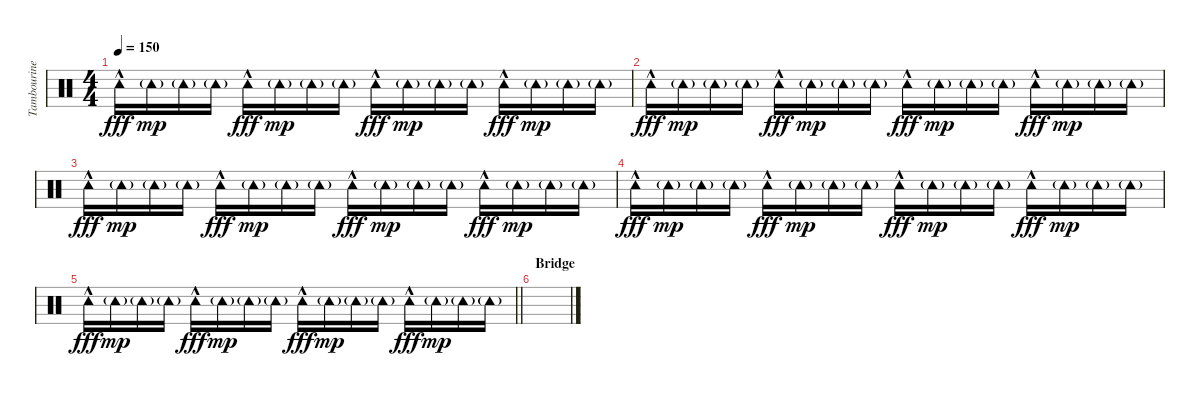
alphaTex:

\track ("Tambourine" "Tambourine") {instrument percussion}
\staff {score}
\articulation defaults
\ts (4 4)
\tempo 150
\clef neutral
\ks c "Tambourine (hit)"{hac}.16{dy fff} "Tambourine (hit)"{g}.16{dy mp} "Tambourine (hit)"{g}.16 "Tambourine (hit)"{g}.16 "Tambourine (hit)"{hac}.16{dy fff} "Tambourine (hit)"{g}.16{dy mp} "Tambourine (hit)"{g}.16 "Tambourine (hit)"{g}.16 "Tambourine (hit)"{hac}.16{dy fff} "Tambourine (hit)"{g}.16{dy mp} "Tambourine (hit)"{g}.16 "Tambourine (hit)"{g}.16 "Tambourine (hit)"{hac}.16{dy fff} "Tambourine (hit)"{g}.16{dy mp} "Tambourine (hit)"{g}.16 "Tambourine (hit)"{g}.16
|
"Tambourine (hit)"{hac}.16{dy fff} "Tambourine (hit)"{g}.16{dy mp} "Tambourine (hit)"{g}.16 "Tambourine (hit)"{g}.16 "Tambourine (hit)"{hac}.16{dy fff} "Tambourine (hit)"{g}.16{dy mp} "Tambourine (hit)"{g}.16 "Tambourine (hit)"{g}.16 "Tambourine (hit)"{hac}.16{dy fff} "Tambourine (hit)"{g}.16{dy mp} "Tambourine (hit)"{g}.16 "Tambourine (hit)"{g}.16 "Tambourine (hit)"{hac}.16{dy fff} "Tambourine (hit)"{g}.16{dy mp} "Tambourine (hit)"{g}.16 "Tambourine (hit)"{g}.16 |
"Tambourine (hit)"{hac}.16{dy fff} "Tambourine (hit)"{g}.16{dy mp} "Tambourine (hit)"{g}.16 "Tambourine (hit)"{g}.16 "Tambourine (hit)"{hac}.16{dy fff} "Tambourine (hit)"{g}.16{dy mp} "Tambourine (hit)"{g}.16 "Tambourine (hit)"{g}.16 "Tambourine (hit)"{hac}.16{dy fff} "Tambourine (hit)"{g}.16{dy mp} "Tambourine (hit)"{g}.16 "Tambourine (hit)"{g}.16 "Tambourine (hit)"{hac}.16{dy fff} "Tambourine (hit)"{g}.16{dy mp} "Tambourine (hit)"{g}.16 "Tambourine (hit)"{g}.16 |
"Tambourine (hit)"{hac}.16{dy fff} "Tambourine (hit)"{g}.16{dy mp} "Tambourine (hit)"{g}.16 "Tambourine (hit)"{g}.16 "Tambourine (hit)"{hac}.16{dy fff} "Tambourine (hit)"{g}.16{dy mp} "Tambourine (hit)"{g}.16 "Tambourine (hit)"{g}.16 "Tambourine (hit)"{hac}.16{dy fff} "Tambourine (hit)"{g}.16{dy mp} "Tambourine (hit)"{g}.16 "Tambourine (hit)"{g}.16 "Tambourine (hit)"{hac}.16{dy fff} "Tambourine (hit)"{g}.16{dy mp} "Tambourine (hit)"{g}.16 "Tambourine (hit)"{g}.16 |
\barLineRight lightlight "Tambourine (hit)"{hac}.16{dy fff} "Tambourine (hit)"{g}.16{dy mp} "Tambourine (hit)"{g}.16 "Tambourine (hit)"{g}.16 "Tambourine (hit)"{hac}.16{dy fff} "Tambourine (hit)"{g}.16{dy mp} "Tambourine (hit)"{g}.16 "Tambourine (hit)"{g}.16 "Tambourine (hit)"{hac}.16{dy fff} "Tambourine (hit)"{g}.16{dy mp} "Tambourine (hit)"{g}.16 "Tambourine (hit)"{g}.16 "Tambourine (hit)"{hac}.16{dy fff} "Tambourine (hit)"{g}.16{dy mp} "Tambourine (hit)"{g}.16 "Tambourine (hit)"{g}.16
|
\section ("" "Bridge")
